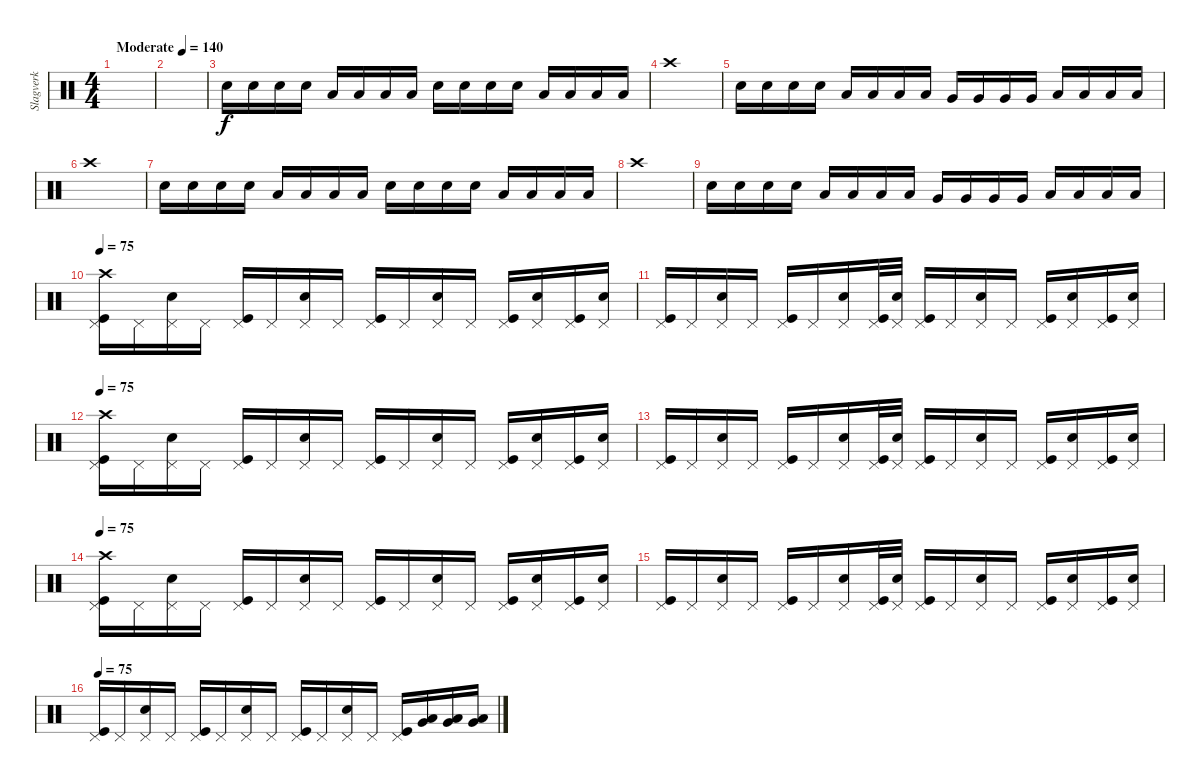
\track ("Slagverk" "Slagverk") {instrument percussion}
\staff {score}
\articulation defaults
\ts (4 4)
\tempo (140 "Moderate")
\tempo 30
\tempo 150
\tempo 135
\tempo (140 "Moderate")
\clef neutral
\ks c
|
|
"Electric Snare (hit)".16 "Electric Snare (hit)".16 "Electric Snare (hit)".16 "Electric Snare (hit)".16 "Low Tom (hit)".16 "Low Tom (hit)".16 "Low Tom (hit)".16 "Low Tom (hit)".16 "Electric Snare (hit)".16 "Electric Snare (hit)".16 "Electric Snare (hit)".16 "Electric Snare (hit)".16 "Low Floor Tom (hit)".16 "Low Floor Tom (hit)".16 "Low Floor Tom (hit)".16 "Low Floor Tom (hit)".16 |
"Crash high (hit)".1 |
"Electric Snare (hit)".16 "Electric Snare (hit)".16 "Electric Snare (hit)".16 "Electric Snare (hit)".16 "Low Tom (hit)".16 "Low Tom (hit)".16 "Low Tom (hit)".16 "Low Tom (hit)".16 "Very Low Tom (hit)".16 "Very Low Tom (hit)".16 "Very Low Tom (hit)".16 "Very Low Tom (hit)".16 "Low Floor Tom (hit)".16 "Low Floor Tom (hit)".16 "Low Floor Tom (hit)".16 "Low Floor Tom (hit)".16 |
"Crash high (hit)".1 |
"Electric Snare (hit)".16 "Electric Snare (hit)".16 "Electric Snare (hit)".16 "Electric Snare (hit)".16 "Low Tom (hit)".16 "Low Tom (hit)".16 "Low Tom (hit)".16 "Low Tom (hit)".16 "Electric Snare (hit)".16 "Electric Snare (hit)".16 "Electric Snare (hit)".16 "Electric Snare (hit)".16 "Low Floor Tom (hit)".16 "Low Floor Tom (hit)".16 "Low Floor Tom (hit)".16 "Low Floor Tom (hit)".16 |
"Crash high (hit)".1 |
"Electric Snare (hit)".16 "Electric Snare (hit)".16 "Electric Snare (hit)".16 "Electric Snare (hit)".16 "Low Tom (hit)".16 "Low Tom (hit)".16 "Low Tom (hit)".16 "Low Tom (hit)".16 "Very Low Tom (hit)".16 "Very Low Tom (hit)".16 "Very Low Tom (hit)".16 "Very Low Tom (hit)".16 "Low Floor Tom (hit)".16 "Low Floor Tom (hit)".16 "Low Floor Tom (hit)".16 "Low Floor Tom (hit)".16 |
\tempo 70
\tempo 75
("Crash high (hit)" "Pedal Hi-Hat (hit)" "Kick (hit)").16 "Pedal Hi-Hat (hit)".16 ("Pedal Hi-Hat (hit)" "Electric Snare (hit)").16 "Pedal Hi-Hat (hit)".16 ("Pedal Hi-Hat (hit)" "Kick (hit)").16 "Pedal Hi-Hat (hit)".16 ("Pedal Hi-Hat (hit)" "Electric Snare (hit)").16 "Pedal Hi-Hat (hit)".16 ("Pedal Hi-Hat (hit)" "Kick (hit)").16 "Pedal Hi-Hat (hit)".16 ("Pedal Hi-Hat (hit)" "Electric Snare (hit)").16 "Pedal Hi-Hat (hit)".16 ("Pedal Hi-Hat (hit)" "Kick (hit)").16 ("Pedal Hi-Hat (hit)" "Electric Snare (hit)").16 ("Pedal Hi-Hat (hit)" "Kick (hit)").16 ("Pedal Hi-Hat (hit)" "Electric Snare (hit)").16 |
("Pedal Hi-Hat (hit)" "Kick (hit)").16 "Pedal Hi-Hat (hit)".16 ("Pedal Hi-Hat (hit)" "Electric Snare (hit)").16 "Pedal Hi-Hat (hit)".16 ("Pedal Hi-Hat (hit)" "Kick (hit)").16 "Pedal Hi-Hat (hit)".16 ("Pedal Hi-Hat (hit)" "Electric Snare (hit)").16 ("Pedal Hi-Hat (hit)" "Kick (hit)").32 ("Pedal Hi-Hat (hit)" "Electric Snare (hit)").32 ("Pedal Hi-Hat (hit)" "Kick (hit)").16 "Pedal Hi-Hat (hit)".16 ("Pedal Hi-Hat (hit)" "Electric Snare (hit)").16 "Pedal Hi-Hat (hit)".16 ("Pedal Hi-Hat (hit)" "Kick (hit)").16 ("Pedal Hi-Hat (hit)" "Electric Snare (hit)").16 ("Pedal Hi-Hat (hit)" "Kick (hit)").16 ("Pedal Hi-Hat (hit)" "Electric Snare (hit)").16 |
\tempo 80
\tempo 75
("Crash high (hit)" "Pedal Hi-Hat (hit)" "Kick (hit)").16 "Pedal Hi-Hat (hit)".16 ("Pedal Hi-Hat (hit)" "Electric Snare (hit)").16 "Pedal Hi-Hat (hit)".16 ("Pedal Hi-Hat (hit)" "Kick (hit)").16 "Pedal Hi-Hat (hit)".16 ("Pedal Hi-Hat (hit)" "Electric Snare (hit)").16 "Pedal Hi-Hat (hit)".16 ("Pedal Hi-Hat (hit)" "Kick (hit)").16 "Pedal Hi-Hat (hit)".16 ("Pedal Hi-Hat (hit)" "Electric Snare (hit)").16 "Pedal Hi-Hat (hit)".16 ("Pedal Hi-Hat (hit)" "Kick (hit)").16 ("Pedal Hi-Hat (hit)" "Electric Snare (hit)").16 ("Pedal Hi-Hat (hit)" "Kick (hit)").16 ("Pedal Hi-Hat (hit)" "Electric Snare (hit)").16 |
("Pedal Hi-Hat (hit)" "Kick (hit)").16 "Pedal Hi-Hat (hit)".16 ("Pedal Hi-Hat (hit)" "Electric Snare (hit)").16 "Pedal Hi-Hat (hit)".16 ("Pedal Hi-Hat (hit)" "Kick (hit)").16 "Pedal Hi-Hat (hit)".16 ("Pedal Hi-Hat (hit)" "Electric Snare (hit)").16 ("Pedal Hi-Hat (hit)" "Kick (hit)").32 ("Pedal Hi-Hat (hit)" "Electric Snare (hit)").32 ("Pedal Hi-Hat (hit)" "Kick (hit)").16 "Pedal Hi-Hat (hit)".16 ("Pedal Hi-Hat (hit)" "Electric Snare (hit)").16 "Pedal Hi-Hat (hit)".16 ("Pedal Hi-Hat (hit)" "Kick (hit)").16 ("Pedal Hi-Hat (hit)" "Electric Snare (hit)").16 ("Pedal Hi-Hat (hit)" "Kick (hit)").16 ("Pedal Hi-Hat (hit)" "Electric Snare (hit)").16 |
\tempo 80
\tempo 75
("Crash high (hit)" "Pedal Hi-Hat (hit)" "Kick (hit)").16 "Pedal Hi-Hat (hit)".16 ("Pedal Hi-Hat (hit)" "Electric Snare (hit)").16 "Pedal Hi-Hat (hit)".16 ("Pedal Hi-Hat (hit)" "Kick (hit)").16 "Pedal Hi-Hat (hit)".16 ("Pedal Hi-Hat (hit)" "Electric Snare (hit)").16 "Pedal Hi-Hat (hit)".16 ("Pedal Hi-Hat (hit)" "Kick (hit)").16 "Pedal Hi-Hat (hit)".16 ("Pedal Hi-Hat (hit)" "Electric Snare (hit)").16 "Pedal Hi-Hat (hit)".16 ("Pedal Hi-Hat (hit)" "Kick (hit)").16 ("Pedal Hi-Hat (hit)" "Electric Snare (hit)").16 ("Pedal Hi-Hat (hit)" "Kick (hit)").16 ("Pedal Hi-Hat (hit)" "Electric Snare (hit)").16 |
("Pedal Hi-Hat (hit)" "Kick (hit)").16 "Pedal Hi-Hat (hit)".16 ("Pedal Hi-Hat (hit)" "Electric Snare (hit)").16 "Pedal Hi-Hat (hit)".16 ("Pedal Hi-Hat (hit)" "Kick (hit)").16 "Pedal Hi-Hat (hit)".16 ("Pedal Hi-Hat (hit)" "Electric Snare (hit)").16 ("Pedal Hi-Hat (hit)" "Kick (hit)").32 ("Pedal Hi-Hat (hit)" "Electric Snare (hit)").32 ("Pedal Hi-Hat (hit)" "Kick (hit)").16 "Pedal Hi-Hat (hit)".16 ("Pedal Hi-Hat (hit)" "Electric Snare (hit)").16 "Pedal Hi-Hat (hit)".16 ("Pedal Hi-Hat (hit)" "Kick (hit)").16 ("Pedal Hi-Hat (hit)" "Electric Snare (hit)").16 ("Pedal Hi-Hat (hit)" "Kick (hit)").16 ("Pedal Hi-Hat (hit)" "Electric Snare (hit)").16 |
\tempo 80
\tempo 75
("Pedal Hi-Hat (hit)" "Kick (hit)").16 "Pedal Hi-Hat (hit)".16 ("Pedal Hi-Hat (hit)" "Electric Snare (hit)").16 "Pedal Hi-Hat (hit)".16 ("Pedal Hi-Hat (hit)" "Kick (hit)").16 "Pedal Hi-Hat (hit)".16 ("Pedal Hi-Hat (hit)" "Electric Snare (hit)").16 "Pedal Hi-Hat (hit)".16 ("Pedal Hi-Hat (hit)" "Kick (hit)").16 "Pedal Hi-Hat (hit)".16 ("Pedal Hi-Hat (hit)" "Electric Snare (hit)").16 "Pedal Hi-Hat (hit)".16 ("Pedal Hi-Hat (hit)" "Kick (hit)").16 ("Low Floor Tom (hit)" "Very Low Tom (hit)").16 ("Low Floor Tom (hit)" "Very Low Tom (hit)").16 ("Low Floor Tom (hit)" "Very Low Tom (hit)").16
